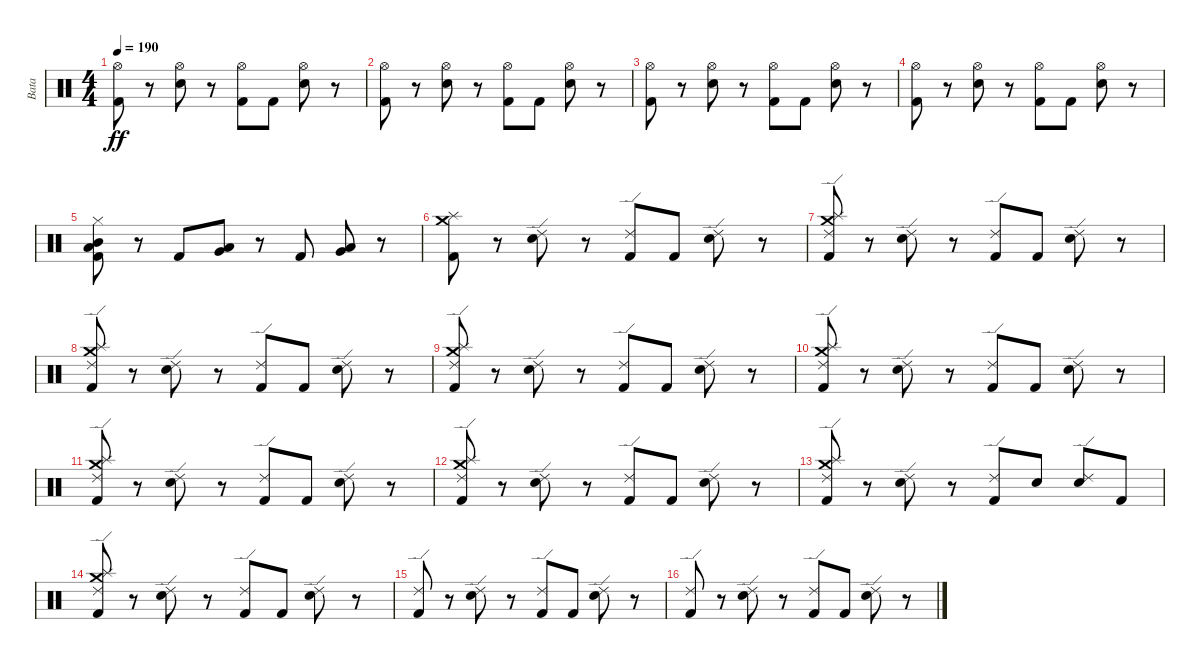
\track ("Bata" "Bata") {instrument percussion}
\staff {score}
\articulation defaults
\ts (4 4)
\tempo 190
\clef neutral
\ks c
("Kick (hit) 2" "Hi-Hat (open)").8{dy ff} r.8 ("Snare (hit) 2" "Hi-Hat (open)").8 r.8 ("Hi-Hat (open)" "Kick (hit) 2").8 "Kick (hit) 2".8 ("Snare (hit) 2" "Hi-Hat (open)").8 r.8 |
("Hi-Hat (open)" "Kick (hit) 2").8 r.8 ("Hi-Hat (open)" "Snare (hit) 2").8 r.8 ("Kick (hit) 2" "Hi-Hat (open)").8 "Kick (hit) 2".8 ("Hi-Hat (open)" "Snare (hit) 2").8 r.8 |
("Kick (hit) 2" "Hi-Hat (open)").8 r.8 ("Hi-Hat (open)" "Snare (hit) 2").8 r.8 ("Kick (hit) 2" "Hi-Hat (open)").8 "Kick (hit) 2".8 ("Hi-Hat (open)" "Snare (hit) 2").8 r.8 |
("Hi-Hat (open)" "Kick (hit) 2").8 r.8 ("Snare (hit) 2" "Hi-Hat (open)").8 r.8 ("Hi-Hat (open)" "Kick (hit) 2").8 "Kick (hit) 2".8 ("Snare (hit) 2" "Hi-Hat (open)").8 r.8 |
("Mid Tom (hit)" "Low Tom (hit)" "Hi-Hat (closed)" "Kick (hit) 2").8 r.8 "Kick (hit) 2".8 ("Very Low Tom (hit)" "Low Tom (hit)").8 r.8 "Kick (hit) 2".8 ("Very Low Tom (hit)" "Low Floor Tom (hit)").8 r.8 |
("Kick (hit) 2" "Splash (hit)" "Crash medium (hit)").8 r.8 ("Snare (hit) 2" "Ride (edge) 2").8 r.8 ("Ride (edge) 2" "Kick (hit) 2").8 "Kick (hit) 2".8 ("Snare (hit) 2" "Ride (edge) 2").8 r.8 |
("Kick (hit) 2" "Ride (edge) 2" "Crash medium (hit)" "Splash (hit)").8 r.8 ("Ride (edge) 2" "Snare (hit) 2").8 r.8 ("Ride (edge) 2" "Kick (hit) 2").8 "Kick (hit) 2".8 ("Snare (hit) 2" "Ride (edge) 2").8 r.8 |
("Splash (hit)" "Crash medium (hit)" "Ride (edge) 2" "Kick (hit) 2").8 r.8 ("Ride (edge) 2" "Snare (hit) 2").8 r.8 ("Kick (hit) 2" "Ride (edge) 2").8 "Kick (hit) 2".8 ("Snare (hit) 2" "Ride (edge) 2").8 r.8 |
("Splash (hit)" "Crash medium (hit)" "Ride (edge) 2" "Kick (hit) 2").8 r.8 ("Ride (edge) 2" "Snare (hit) 2").8 r.8 ("Kick (hit) 2" "Ride (edge) 2").8 "Kick (hit) 2".8 ("Ride (edge) 2" "Snare (hit) 2").8 r.8 |
("Splash (hit)" "Crash medium (hit)" "Ride (edge) 2" "Kick (hit) 2").8 r.8 ("Snare (hit) 2" "Ride (edge) 2").8 r.8 ("Kick (hit) 2" "Ride (edge) 2").8 "Kick (hit) 2".8 ("Ride (edge) 2" "Snare (hit) 2").8 r.8 |
("Kick (hit) 2" "Ride (edge) 2" "Crash medium (hit)" "Splash (hit)").8 r.8 ("Snare (hit) 2" "Ride (edge) 2").8 r.8 ("Ride (edge) 2" "Kick (hit) 2").8 "Kick (hit) 2".8 ("Ride (edge) 2" "Snare (hit) 2").8 r.8 |
("Kick (hit) 2" "Ride (edge) 2" "Crash medium (hit)" "Splash (hit)").8 r.8 ("Ride (edge) 2" "Snare (hit) 2").8 r.8 ("Ride (edge) 2" "Kick (hit) 2").8 "Kick (hit) 2".8 ("Snare (hit) 2" "Ride (edge) 2").8 r.8 |
("Kick (hit) 2" "Ride (edge) 2" "Crash medium (hit)" "Splash (hit)").8 r.8 ("Ride (edge) 2" "Snare (hit) 2").8 r.8 ("Ride (edge) 2" "Kick (hit) 2").8 "Snare (hit) 2".8 ("Snare (hit) 2" "Ride (edge) 2").8 "Kick (hit) 2".8 |
("Splash (hit)" "Crash medium (hit)" "Ride (edge) 2" "Kick (hit) 2").8 r.8 ("Ride (edge) 2" "Snare (hit) 2").8 r.8 ("Kick (hit) 2" "Ride (edge) 2").8 "Kick (hit) 2".8 ("Snare (hit) 2" "Ride (edge) 2").8 r.8 |
("Ride (edge) 2" "Kick (hit) 2").8 r.8 ("Snare (hit) 2" "Ride (edge) 2").8 r.8 ("Kick (hit) 2" "Ride (edge) 2").8 "Kick (hit) 2".8 ("Ride (edge) 2" "Snare (hit) 2").8 r.8 |
("Ride (edge) 2" "Kick (hit) 2").8 r.8 ("Snare (hit) 2" "Ride (edge) 2").8 r.8 ("Ride (edge) 2" "Kick (hit) 2").8 "Kick (hit) 2".8 ("Ride (edge) 2" "Snare (hit) 2").8 r.8
